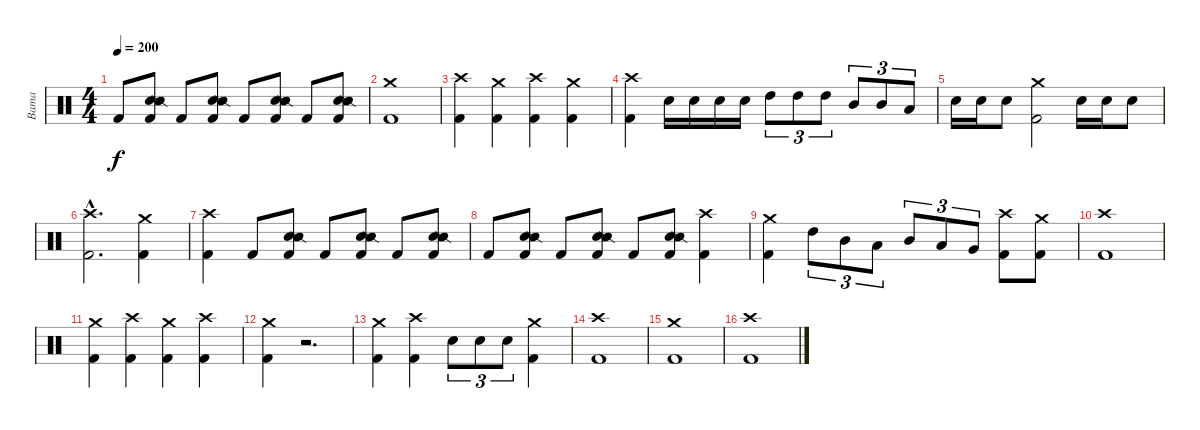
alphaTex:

\track ("Bama" "Bama") {instrument percussion}
\staff {score}
\articulation defaults
\ts (4 4)
\tempo 200
\clef neutral
\ks c "Kick (hit) 2".8{dy f}
("Electric Snare (hit)" "Snare (side stick) 2" "Kick (hit) 2").8 "Kick (hit) 2".8 ("Electric Snare (hit)" "Snare (side stick) 2" "Kick (hit) 2").8 "Kick (hit) 2".8 ("Electric Snare (hit)" "Snare (side stick) 2" "Kick (hit) 2").8 "Kick (hit) 2".8 ("Electric Snare (hit)" "Snare (side stick) 2" "Kick (hit) 2").8 |
("Crash medium (hit)" "Kick (hit) 2").1 |
("Crash high (hit)" "Kick (hit) 2").4 ("Crash medium (hit)" "Kick (hit) 2").4 ("Crash high (hit)" "Kick (hit) 2").4 ("Crash medium (hit)" "Kick (hit) 2").4 |
("Crash high (hit)" "Kick (hit) 2").4 "Electric Snare (hit)".16 "Electric Snare (hit)".16 "Electric Snare (hit)".16 "Electric Snare (hit)".16 "High Tom (hit)".8{tu (3 2)} "High Tom (hit)".8{tu (3 2)} "High Tom (hit)".8{tu (3 2)} "Mid Tom (hit)".8{tu (3 2)} "Mid Tom (hit)".8{tu (3 2)} "Low Tom (hit)".8{tu (3 2)} |
"Electric Snare (hit)".16 "Electric Snare (hit)".16 "Electric Snare (hit)".8 ("Crash medium (hit)" "Kick (hit) 2").2 "Electric Snare (hit)".16 "Electric Snare (hit)".16 "Electric Snare (hit)".8 |
("Crash high (hit)"{hac} "Kick (hit) 2"{hac}).2{d} ("Crash medium (hit)" "Kick (hit) 2").4 |
("Crash high (hit)" "Kick (hit) 2").4 "Kick (hit) 2".8 ("Electric Snare (hit)" "Snare (side stick) 2" "Kick (hit) 2").8 "Kick (hit) 2".8 ("Electric Snare (hit)" "Snare (side stick) 2" "Kick (hit) 2").8 "Kick (hit) 2".8 ("Electric Snare (hit)" "Snare (side stick) 2" "Kick (hit) 2").8 |
"Kick (hit) 2".8 ("Electric Snare (hit)" "Snare (side stick) 2" "Kick (hit) 2").8 "Kick (hit) 2".8 ("Electric Snare (hit)" "Snare (side stick) 2" "Kick (hit) 2").8 "Kick (hit) 2".8 ("Electric Snare (hit)" "Snare (side stick) 2" "Kick (hit) 2").8 ("Crash high (hit)" "Kick (hit) 2").4 |
("Crash medium (hit)" "Kick (hit) 2").4 "High Tom (hit)".8{tu (3 2)} "Mid Tom (hit)".8{tu (3 2)} "Low Tom (hit)".8{tu (3 2)} "Mid Tom (hit)".8{tu (3 2)} "Low Tom (hit)".8{tu (3 2)} "Very Low Tom (hit)".8{tu (3 2)} ("Crash high (hit)" "Kick (hit) 2").8 ("Crash medium (hit)" "Kick (hit) 2").8 |
("Crash high (hit)" "Kick (hit) 2").1 |
("Crash medium (hit)" "Kick (hit) 2").4 ("Crash high (hit)" "Kick (hit) 2").4 ("Crash medium (hit)" "Kick (hit) 2").4 ("Crash high (hit)" "Kick (hit) 2").4 |
("Crash medium (hit)" "Kick (hit) 2").4 r.2{d} |
("Crash medium (hit)" "Kick (hit) 2").4 ("Crash high (hit)" "Kick (hit) 2").4 "Electric Snare (hit)".8{tu (3 2)} "Electric Snare (hit)".8{tu (3 2)} "Electric Snare (hit)".8{tu (3 2)} ("Crash medium (hit)" "Kick (hit) 2").4 |
("Crash high (hit)" "Kick (hit) 2").1 |
("Crash medium (hit)" "Kick (hit) 2").1 |
("Crash high (hit)" "Kick (hit) 2").1
